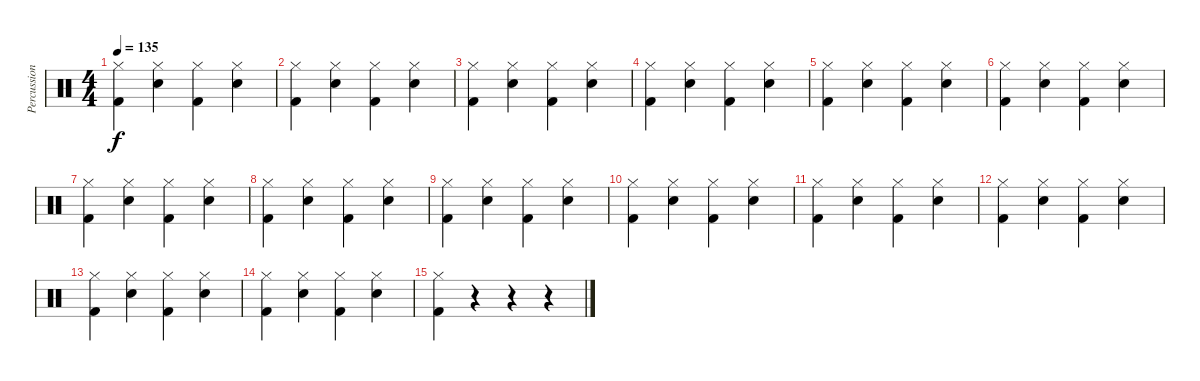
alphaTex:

\track ("Percussion" "Percussion") {instrument percussion}
\staff {score}
\articulation defaults
\ts (4 4)
\tempo 135
\clef neutral
\ks c
("Hi-Hat (closed)" "Kick (hit) 2").4{dy f} ("Hi-Hat (closed)" "Electric Snare (hit)").4 ("Hi-Hat (closed)" "Kick (hit) 2").4 ("Hi-Hat (closed)" "Electric Snare (hit)").4 |
("Hi-Hat (closed)" "Kick (hit) 2").4 ("Hi-Hat (closed)" "Electric Snare (hit)").4 ("Hi-Hat (closed)" "Kick (hit) 2").4 ("Hi-Hat (closed)" "Electric Snare (hit)").4 |
("Hi-Hat (closed)" "Kick (hit) 2").4 ("Hi-Hat (closed)" "Electric Snare (hit)").4 ("Hi-Hat (closed)" "Kick (hit) 2").4 ("Hi-Hat (closed)" "Electric Snare (hit)").4 |
("Hi-Hat (closed)" "Kick (hit) 2").4 ("Hi-Hat (closed)" "Electric Snare (hit)").4 ("Hi-Hat (closed)" "Kick (hit) 2").4 ("Hi-Hat (closed)" "Electric Snare (hit)").4 |
("Hi-Hat (closed)" "Kick (hit) 2").4 ("Hi-Hat (closed)" "Electric Snare (hit)").4 ("Hi-Hat (closed)" "Kick (hit) 2").4 ("Hi-Hat (closed)" "Electric Snare (hit)").4 |
("Hi-Hat (closed)" "Kick (hit) 2").4 ("Hi-Hat (closed)" "Electric Snare (hit)").4 ("Hi-Hat (closed)" "Kick (hit) 2").4 ("Hi-Hat (closed)" "Electric Snare (hit)").4 |
("Hi-Hat (closed)" "Kick (hit) 2").4 ("Hi-Hat (closed)" "Electric Snare (hit)").4 ("Hi-Hat (closed)" "Kick (hit) 2").4 ("Hi-Hat (closed)" "Electric Snare (hit)").4 |
("Hi-Hat (closed)" "Kick (hit) 2").4 ("Hi-Hat (closed)" "Electric Snare (hit)").4 ("Hi-Hat (closed)" "Kick (hit) 2").4 ("Hi-Hat (closed)" "Electric Snare (hit)").4 |
("Hi-Hat (closed)" "Kick (hit) 2").4 ("Hi-Hat (closed)" "Electric Snare (hit)").4 ("Hi-Hat (closed)" "Kick (hit) 2").4 ("Hi-Hat (closed)" "Electric Snare (hit)").4 |
("Hi-Hat (closed)" "Kick (hit) 2").4 ("Hi-Hat (closed)" "Electric Snare (hit)").4 ("Hi-Hat (closed)" "Kick (hit) 2").4 ("Hi-Hat (closed)" "Electric Snare (hit)").4 |
("Hi-Hat (closed)" "Kick (hit) 2").4 ("Hi-Hat (closed)" "Electric Snare (hit)").4 ("Hi-Hat (closed)" "Kick (hit) 2").4 ("Hi-Hat (closed)" "Electric Snare (hit)").4 |
("Hi-Hat (closed)" "Kick (hit) 2").4 ("Hi-Hat (closed)" "Electric Snare (hit)").4 ("Hi-Hat (closed)" "Kick (hit) 2").4 ("Hi-Hat (closed)" "Electric Snare (hit)").4 |
("Hi-Hat (closed)" "Kick (hit) 2").4 ("Hi-Hat (closed)" "Electric Snare (hit)").4 ("Hi-Hat (closed)" "Kick (hit) 2").4 ("Hi-Hat (closed)" "Electric Snare (hit)").4 |
("Hi-Hat (closed)" "Kick (hit) 2").4 ("Hi-Hat (closed)" "Electric Snare (hit)").4 ("Hi-Hat (closed)" "Kick (hit) 2").4 ("Hi-Hat (closed)" "Electric Snare (hit)").4 |
("Hi-Hat (closed)" "Kick (hit) 2").4 r.4 r.4 r.4
